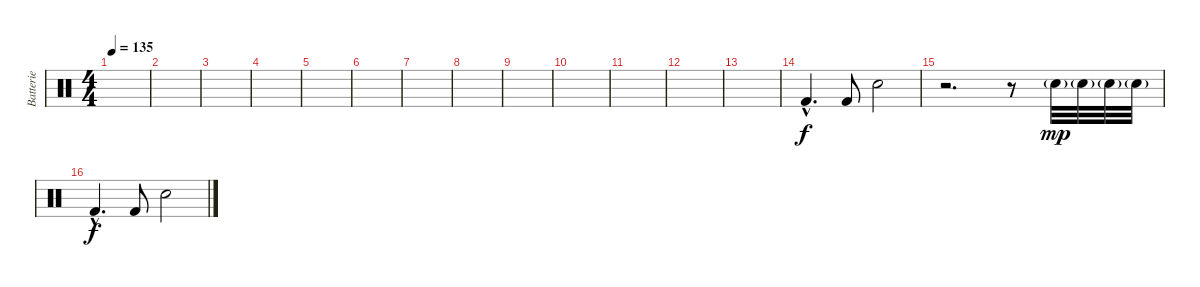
\track ("Batterie" "Batterie") {instrument percussion}
\staff {score}
\articulation defaults
\ts (4 4)
\tempo 135
\clef neutral
\ks c
|
|
|
|
|
|
|
|
|
|
|
|
|
"Kick (hit) 2"{hac}.4{d} "Kick (hit) 2".8 "Snare (hit) 2".2 |
r.2{d} r.8 "Snare (hit) 2"{g}.32{dy mp} "Snare (hit) 2"{g}.32 "Snare (hit) 2"{g}.32 "Snare (hit) 2"{g}.32 |
"Kick (hit) 2"{hac}.4{d dy f} "Kick (hit) 2".8 "Snare (hit) 2".2
